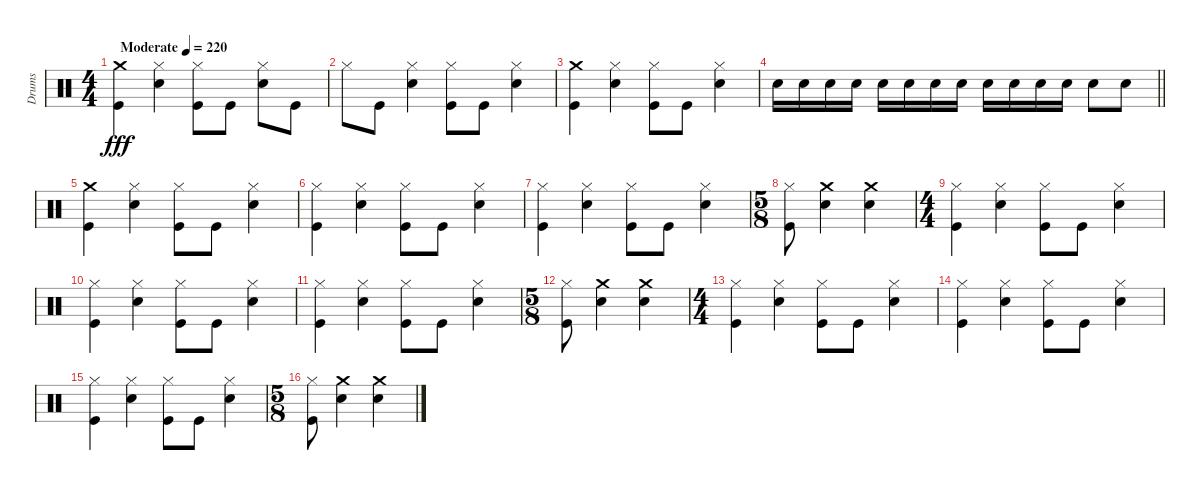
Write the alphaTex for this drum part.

\track ("Drums" "Drums") {instrument percussion}
\staff {score}
\articulation defaults
\ts (4 4)
\tempo (220 "Moderate")
\clef neutral
\ks c
("Kick (hit)" "Crash medium (hit)").4{dy fff} ("Snare (hit) 2" "Hi-Hat (closed)").4 ("Kick (hit)" "Hi-Hat (closed)").8 "Kick (hit)".8 ("Hi-Hat (closed)" "Snare (hit) 2").8 "Kick (hit)".8 |
"Hi-Hat (closed)".8 "Kick (hit)".8 ("Snare (hit) 2" "Hi-Hat (closed)").4 ("Hi-Hat (closed)" "Kick (hit)").8 "Kick (hit)".8 ("Snare (hit) 2" "Hi-Hat (closed)").4 |
("Crash medium (hit)" "Kick (hit)").4 ("Snare (hit) 2" "Hi-Hat (closed)").4 ("Kick (hit)" "Hi-Hat (closed)").8 "Kick (hit)".8 ("Snare (hit) 2" "Hi-Hat (closed)").4 |
\barLineRight lightlight "Snare (hit) 2".16 "Snare (hit) 2".16 "Snare (hit) 2".16 "Snare (hit) 2".16 "Snare (hit) 2".16 "Snare (hit) 2".16 "Snare (hit) 2".16 "Snare (hit) 2".16 "Snare (hit) 2".16 "Snare (hit) 2".16 "Snare (hit) 2".16 "Snare (hit) 2".16 "Snare (hit) 2".8 "Snare (hit) 2".8
|
("Kick (hit)" "Crash medium (hit)").4 ("Snare (hit) 2" "Hi-Hat (closed)").4 ("Hi-Hat (closed)" "Kick (hit)").8 "Kick (hit)".8 ("Snare (hit) 2" "Hi-Hat (closed)").4 |
("Hi-Hat (closed)" "Kick (hit)").4 ("Snare (hit) 2" "Hi-Hat (closed)").4 ("Kick (hit)" "Hi-Hat (closed)").8 "Kick (hit)".8 ("Snare (hit) 2" "Hi-Hat (closed)").4 |
("Kick (hit)" "Hi-Hat (closed)").4 ("Snare (hit) 2" "Hi-Hat (closed)").4 ("Kick (hit)" "Hi-Hat (closed)").8 "Kick (hit)".8 ("Snare (hit) 2" "Hi-Hat (closed)").4 |
\ts (5 8)
("Hi-Hat (closed)" "Kick (hit)").8 ("Snare (hit) 2" "Crash medium (hit)").4 ("Crash medium (hit)" "Snare (hit) 2").4 |
\ts (4 4)
("Hi-Hat (closed)" "Kick (hit)").4 ("Snare (hit) 2" "Hi-Hat (closed)").4 ("Kick (hit)" "Hi-Hat (closed)").8 "Kick (hit)".8 ("Snare (hit) 2" "Hi-Hat (closed)").4 |
("Kick (hit)" "Hi-Hat (closed)").4 ("Snare (hit) 2" "Hi-Hat (closed)").4 ("Hi-Hat (closed)" "Kick (hit)").8 "Kick (hit)".8 ("Snare (hit) 2" "Hi-Hat (closed)").4 |
("Hi-Hat (closed)" "Kick (hit)").4 ("Snare (hit) 2" "Hi-Hat (closed)").4 ("Kick (hit)" "Hi-Hat (closed)").8 "Kick (hit)".8 ("Hi-Hat (closed)" "Snare (hit) 2").4 |
\ts (5 8)
("Hi-Hat (closed)" "Kick (hit)").8 ("Snare (hit) 2" "Crash medium (hit)").4 ("Snare (hit) 2" "Crash medium (hit)").4 |
\ts (4 4)
("Hi-Hat (closed)" "Kick (hit)").4 ("Snare (hit) 2" "Hi-Hat (closed)").4 ("Kick (hit)" "Hi-Hat (closed)").8 "Kick (hit)".8 ("Snare (hit) 2" "Hi-Hat (closed)").4 |
("Hi-Hat (closed)" "Kick (hit)").4 ("Snare (hit) 2" "Hi-Hat (closed)").4 ("Kick (hit)" "Hi-Hat (closed)").8 "Kick (hit)".8 ("Snare (hit) 2" "Hi-Hat (closed)").4 |
("Kick (hit)" "Hi-Hat (closed)").4 ("Snare (hit) 2" "Hi-Hat (closed)").4 ("Kick (hit)" "Hi-Hat (closed)").8 "Kick (hit)".8 ("Snare (hit) 2" "Hi-Hat (closed)").4 |
\ts (5 8)
("Hi-Hat (closed)" "Kick (hit)").8 ("Snare (hit) 2" "Crash medium (hit)").4 ("Crash medium (hit)" "Snare (hit) 2").4
